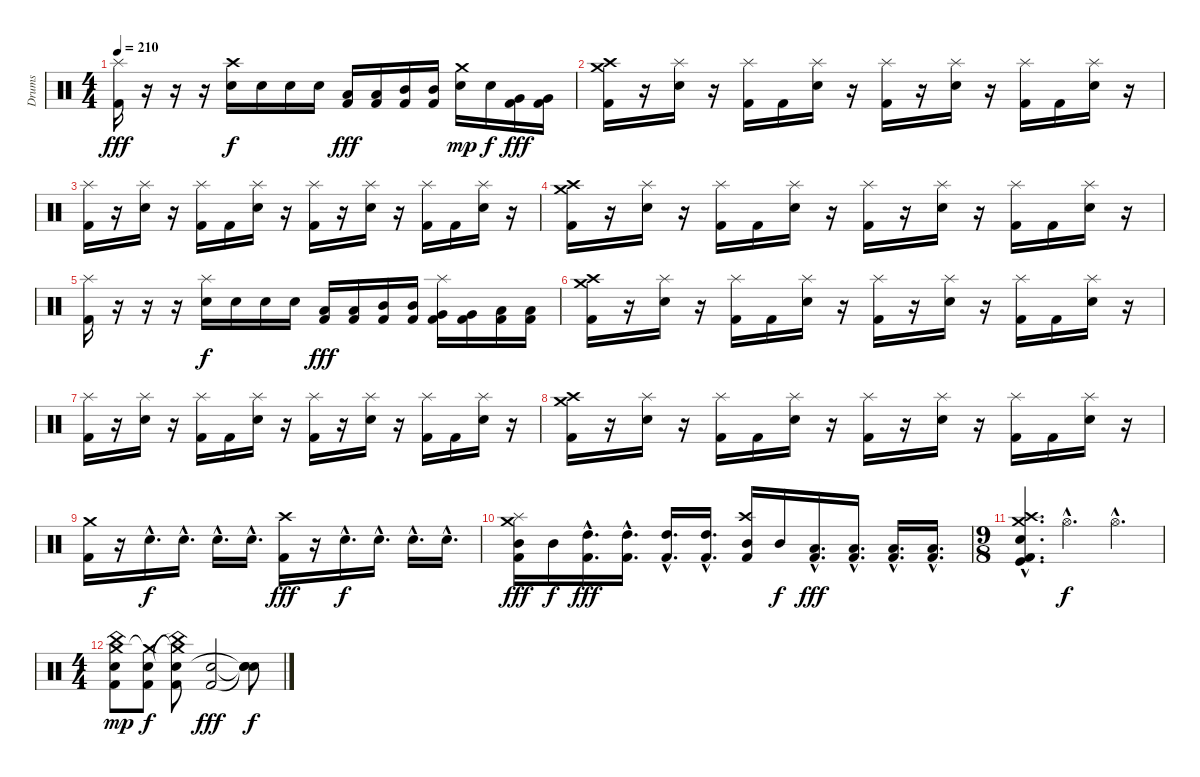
\track ("Drums" "Drums") {instrument percussion}
\staff {score}
\articulation defaults
\ts (4 4)
\tempo 210
\clef neutral
\ks c
("Splash (hit)" "Kick (hit) 2").16{dy fff} r.16 r.16 r.16 ("Crash high (hit)" "Electric Snare (hit)").16{dy f} "Electric Snare (hit)".16 "Electric Snare (hit)".16 "Electric Snare (hit)".16 ("Low Tom (hit)" "Kick (hit) 2").16{dy fff} ("Low Tom (hit)" "Kick (hit) 2").16 ("Mid Tom (hit)" "Kick (hit) 2").16 ("Mid Tom (hit)" "Kick (hit) 2").16 ("Crash medium (hit)" "Electric Snare (hit)").16{dy mp} "Electric Snare (hit)".16{dy f} ("Very Low Tom (hit)" "Kick (hit) 2").16{dy fff} ("Very Low Tom (hit)" "Kick (hit) 2").16 |
("Crash medium (hit)" "Crash high (hit)" "Kick (hit) 2").16 r.16 ("Splash (hit)" "Electric Snare (hit)").16 r.16 ("Splash (hit)" "Kick (hit) 2").16 "Kick (hit) 2".16 ("Splash (hit)" "Electric Snare (hit)").16 r.16 ("Splash (hit)" "Kick (hit) 2").16 r.16 ("Splash (hit)" "Electric Snare (hit)").16 r.16 ("Splash (hit)" "Kick (hit) 2").16 "Kick (hit) 2".16 ("Splash (hit)" "Electric Snare (hit)").16 r.16 |
("Splash (hit)" "Kick (hit) 2").16 r.16 ("Splash (hit)" "Electric Snare (hit)").16 r.16 ("Splash (hit)" "Kick (hit) 2").16 "Kick (hit) 2".16 ("Splash (hit)" "Electric Snare (hit)").16 r.16 ("Splash (hit)" "Kick (hit) 2").16 r.16 ("Splash (hit)" "Electric Snare (hit)").16 r.16 ("Splash (hit)" "Kick (hit) 2").16 "Kick (hit) 2".16 ("Splash (hit)" "Electric Snare (hit)").16 r.16 |
("Crash medium (hit)" "Crash high (hit)" "Kick (hit) 2").16 r.16 ("Splash (hit)" "Electric Snare (hit)").16 r.16 ("Splash (hit)" "Kick (hit) 2").16 "Kick (hit) 2".16 ("Splash (hit)" "Electric Snare (hit)").16 r.16 ("Splash (hit)" "Kick (hit) 2").16 r.16 ("Splash (hit)" "Electric Snare (hit)").16 r.16 ("Splash (hit)" "Kick (hit) 2").16 "Kick (hit) 2".16 ("Splash (hit)" "Electric Snare (hit)").16 r.16 |
("Splash (hit)" "Kick (hit) 2").16 r.16 r.16 r.16 ("Splash (hit)" "Electric Snare (hit)").16{dy f} "Electric Snare (hit)".16 "Electric Snare (hit)".16 "Electric Snare (hit)".16 ("Low Tom (hit)" "Kick (hit) 2").16{dy fff} ("Low Tom (hit)" "Kick (hit) 2").16 ("Mid Tom (hit)" "Kick (hit) 2").16 ("Mid Tom (hit)" "Kick (hit) 2").16 ("Splash (hit)" "Very Low Tom (hit)" "Kick (hit) 2").16 ("Very Low Tom (hit)" "Kick (hit) 2").16 ("Low Floor Tom (hit)" "Kick (hit) 2").16 ("Low Floor Tom (hit)" "Kick (hit) 2").16 |
("Crash medium (hit)" "Crash high (hit)" "Kick (hit) 2").16 r.16 ("Splash (hit)" "Electric Snare (hit)").16 r.16 ("Splash (hit)" "Kick (hit) 2").16 "Kick (hit) 2".16 ("Splash (hit)" "Electric Snare (hit)").16 r.16 ("Splash (hit)" "Kick (hit) 2").16 r.16 ("Splash (hit)" "Electric Snare (hit)").16 r.16 ("Splash (hit)" "Kick (hit) 2").16 "Kick (hit) 2".16 ("Splash (hit)" "Electric Snare (hit)").16 r.16 |
("Splash (hit)" "Kick (hit) 2").16 r.16 ("Splash (hit)" "Electric Snare (hit)").16 r.16 ("Splash (hit)" "Kick (hit) 2").16 "Kick (hit) 2".16 ("Splash (hit)" "Electric Snare (hit)").16 r.16 ("Splash (hit)" "Kick (hit) 2").16 r.16 ("Splash (hit)" "Electric Snare (hit)").16 r.16 ("Splash (hit)" "Kick (hit) 2").16 "Kick (hit) 2".16 ("Splash (hit)" "Electric Snare (hit)").16 r.16 |
("Crash medium (hit)" "Crash high (hit)" "Kick (hit) 2").16 r.16 ("Splash (hit)" "Electric Snare (hit)").16 r.16 ("Splash (hit)" "Kick (hit) 2").16 "Kick (hit) 2".16 ("Splash (hit)" "Electric Snare (hit)").16 r.16 ("Splash (hit)" "Kick (hit) 2").16 r.16 ("Splash (hit)" "Electric Snare (hit)").16 r.16 ("Splash (hit)" "Kick (hit) 2").16 "Kick (hit) 2".16 ("Splash (hit)" "Electric Snare (hit)").16 r.16 |
("Crash medium (hit)" "Kick (hit) 2").16 r.16 "Electric Snare (hit)"{hac}.16{d dy f} "Electric Snare (hit)"{hac}.16{d} "Electric Snare (hit)"{hac}.16{d} "Electric Snare (hit)"{hac}.16{d} ("Crash high (hit)" "Kick (hit) 2").16{dy fff} r.16 "Electric Snare (hit)"{hac}.16{d dy f} "Electric Snare (hit)"{hac}.16{d} "Electric Snare (hit)"{hac}.16{d} "Electric Snare (hit)"{hac}.16{d} |
("Crash medium (hit)" "Splash (hit)" "Mid Tom (hit)" "Kick (hit) 2").16{dy fff} "Mid Tom (hit)".16{dy f} ("High Tom (hit)"{hac} "Kick (hit) 2"{hac}).16{d dy fff} ("High Tom (hit)"{hac} "Kick (hit) 2"{hac}).16{d} ("High Tom (hit)"{hac} "Kick (hit) 2"{hac}).16{d} ("High Tom (hit)"{hac} "Kick (hit) 2"{hac}).16{d} ("Crash high (hit)" "Mid Tom (hit)" "Kick (hit) 2").16 "Mid Tom (hit)".16{dy f} ("Low Tom (hit)"{hac} "Kick (hit) 2"{hac}).16{d dy fff} ("Low Tom (hit)"{hac} "Kick (hit) 2"{hac}).16{d} ("Low Tom (hit)"{hac} "Kick (hit) 2"{hac}).16{d} ("Low Tom (hit)"{hac} "Kick (hit) 2"{hac}).16{d} |
\ts (9 8)
("Crash high (hit)"{hac} "Crash medium (hit)"{hac} "Electric Snare (hit)"{hac} "Kick (hit)"{hac} "Kick (hit) 2"{hac}).4{d} "Hi-Hat (open)"{hac}.4{d dy f} "Hi-Hat (open)"{hac}.4{d} |
\ts (4 4)
("Crash medium (hit)" "China (hit)" "Electric Snare (hit)" "Kick (hit) 2").8{dy mp} ("Crash medium (hit)"{t} "Electric Snare (hit)" "Kick (hit) 2").8{dy f} ("Crash medium (hit)"{t} "China (hit)"{t} "Electric Snare (hit)" "Kick (hit) 2").8 ("Electric Snare (hit)" "Kick (hit) 2").2{dy fff} ("Snare (hit)"{t} "Snare (hit)"{t} "Snare (hit)"{t}).8{dy f}
